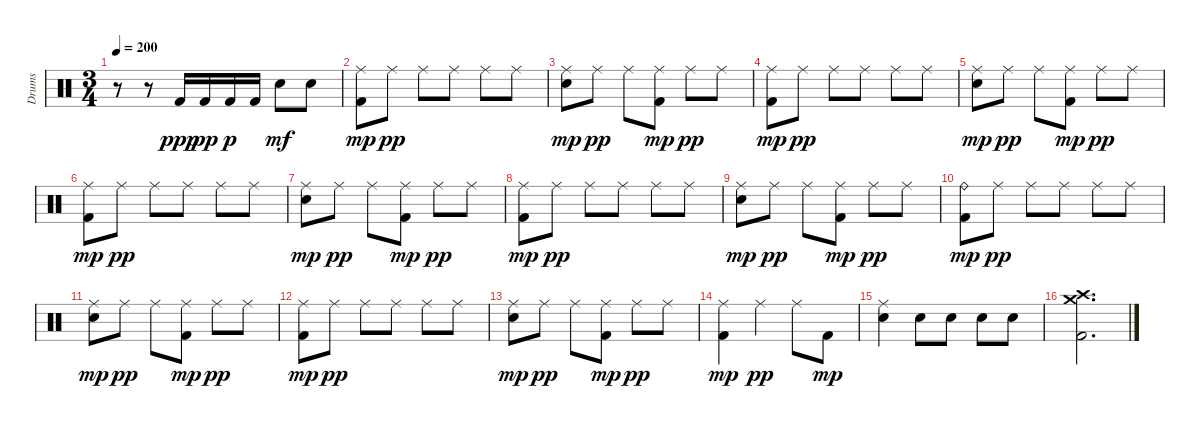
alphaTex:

\track ("Drums" "Drums") {instrument percussion}
\staff {score}
\articulation defaults
\ts (3 4)
\tempo 200
\clef neutral
\ks c
r.8{dy f} r.8 "Kick (hit) 2".16{dy ppp} "Kick (hit) 2".16{dy pp} "Kick (hit) 2".16{dy p} "Kick (hit) 2".16 "Snare (hit) 2".8{dy mf} "Snare (hit) 2".8 |
("Ride (middle)" "Kick (hit) 2").8{dy mp} "Ride (middle)".8{dy pp} "Ride (middle)".8 "Ride (middle)".8 "Ride (middle)".8 "Ride (middle)".8 |
("Ride (middle)" "Snare (hit) 2").8{dy mp} "Ride (middle)".8{dy pp} "Ride (middle)".8 ("Ride (middle)" "Kick (hit) 2").8{dy mp} "Ride (middle)".8{dy pp} "Ride (middle)".8 |
("Ride (middle)" "Kick (hit) 2").8{dy mp} "Ride (middle)".8{dy pp} "Ride (middle)".8 "Ride (middle)".8 "Ride (middle)".8 "Ride (middle)".8 |
("Ride (middle)" "Snare (hit) 2").8{dy mp} "Ride (middle)".8{dy pp} "Ride (middle)".8 ("Ride (middle)" "Kick (hit) 2").8{dy mp} "Ride (middle)".8{dy pp} "Ride (middle)".8 |
("Ride (middle)" "Kick (hit) 2").8{dy mp} "Ride (middle)".8{dy pp} "Ride (middle)".8 "Ride (middle)".8 "Ride (middle)".8 "Ride (middle)".8 |
("Ride (middle)" "Snare (hit) 2").8{dy mp} "Ride (middle)".8{dy pp} "Ride (middle)".8 ("Ride (middle)" "Kick (hit) 2").8{dy mp} "Ride (middle)".8{dy pp} "Ride (middle)".8 |
("Ride (middle)" "Kick (hit) 2").8{dy mp} "Ride (middle)".8{dy pp} "Ride (middle)".8 "Ride (middle)".8 "Ride (middle)".8 "Ride (middle)".8 |
("Ride (middle)" "Snare (hit) 2").8{dy mp} "Ride (middle)".8{dy pp} "Ride (middle)".8 ("Ride (middle)" "Kick (hit) 2").8{dy mp} "Ride (middle)".8{dy pp} "Ride (middle)".8 |
("Ride (bell)" "Kick (hit) 2").8{dy mp} "Ride (middle)".8{dy pp} "Ride (middle)".8 "Ride (middle)".8 "Ride (middle)".8 "Ride (middle)".8 |
("Ride (middle)" "Snare (hit) 2").8{dy mp} "Ride (middle)".8{dy pp} "Ride (middle)".8 ("Ride (middle)" "Kick (hit) 2").8{dy mp} "Ride (middle)".8{dy pp} "Ride (middle)".8 |
("Ride (middle)" "Kick (hit) 2").8{dy mp} "Ride (middle)".8{dy pp} "Ride (middle)".8 "Ride (middle)".8 "Ride (middle)".8 "Ride (middle)".8 |
("Ride (middle)" "Snare (hit) 2").8{dy mp} "Ride (middle)".8{dy pp} "Ride (middle)".8 ("Ride (middle)" "Kick (hit) 2").8{dy mp} "Ride (middle)".8{dy pp} "Ride (middle)".8 |
("Ride (middle)" "Kick (hit) 2").4{dy mp} "Ride (middle)".4{dy pp} "Ride (middle)".8 "Kick (hit) 2".8{dy mp} |
("Ride (middle)" "Snare (hit) 2").4 "Snare (hit) 2".8 "Snare (hit) 2".8 "Snare (hit) 2".8 "Snare (hit) 2".8 |
("Crash high (hit)" "Crash medium (hit)" "Kick (hit) 2").2{d}
